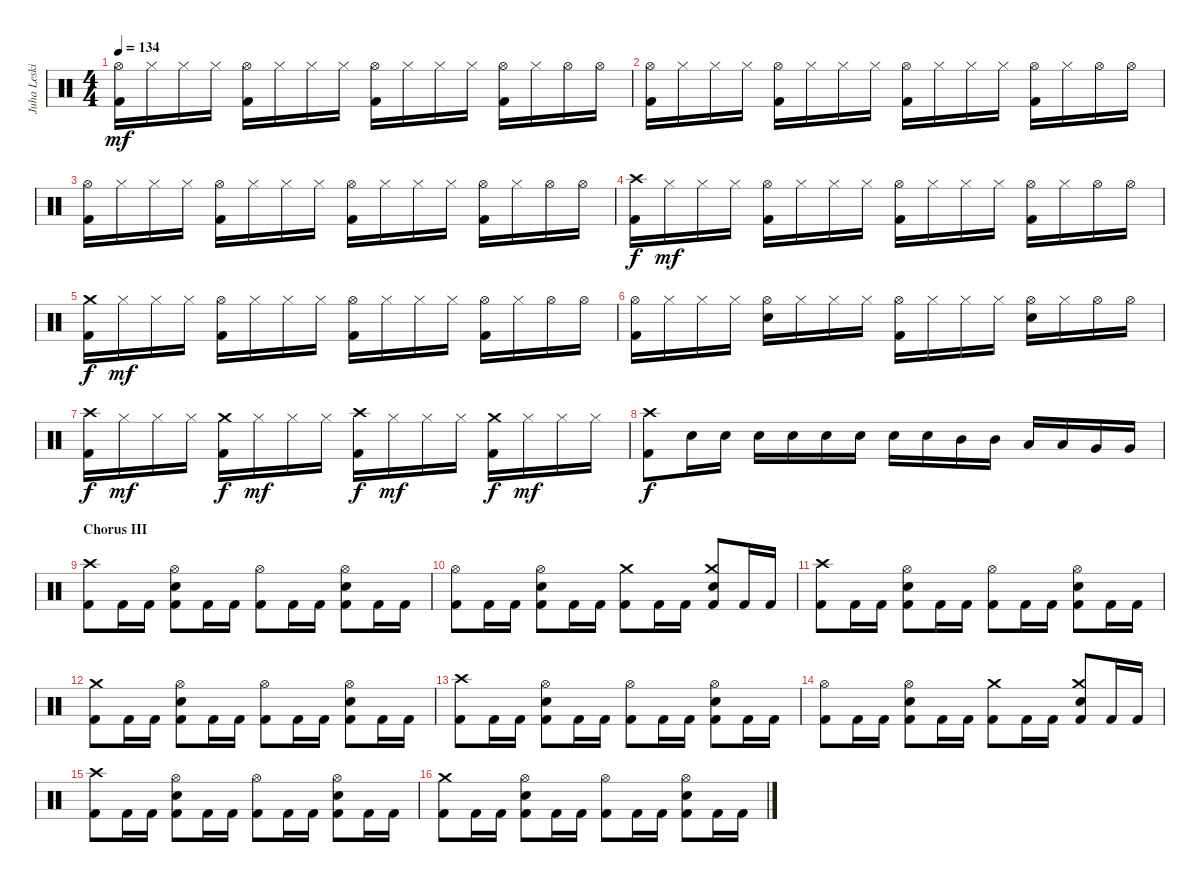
\track ("Juha Leskinen - Drums" "Juha Leski") {instrument percussion}
\staff {score}
\articulation defaults
\ts (4 4)
\tempo 134
\clef neutral
\ks c
("Hi-Hat (open)" "Kick (hit) 2").16{dy mf} "Hi-Hat (closed)".16 "Hi-Hat (closed)".16 "Hi-Hat (closed)".16 ("Hi-Hat (open)" "Kick (hit) 2").16 "Hi-Hat (closed)".16 "Hi-Hat (closed)".16 "Hi-Hat (closed)".16 ("Hi-Hat (open)" "Kick (hit) 2").16 "Hi-Hat (closed)".16 "Hi-Hat (closed)".16 "Hi-Hat (closed)".16 ("Hi-Hat (open)" "Kick (hit) 2").16 "Hi-Hat (closed)".16 "Hi-Hat (open)".16 "Hi-Hat (open)".16 |
("Hi-Hat (open)" "Kick (hit) 2").16 "Hi-Hat (closed)".16 "Hi-Hat (closed)".16 "Hi-Hat (closed)".16 ("Hi-Hat (open)" "Kick (hit) 2").16 "Hi-Hat (closed)".16 "Hi-Hat (closed)".16 "Hi-Hat (closed)".16 ("Hi-Hat (open)" "Kick (hit) 2").16 "Hi-Hat (closed)".16 "Hi-Hat (closed)".16 "Hi-Hat (closed)".16 ("Hi-Hat (open)" "Kick (hit) 2").16 "Hi-Hat (closed)".16 "Hi-Hat (open)".16 "Hi-Hat (open)".16 |
("Hi-Hat (open)" "Kick (hit) 2").16 "Hi-Hat (closed)".16 "Hi-Hat (closed)".16 "Hi-Hat (closed)".16 ("Hi-Hat (open)" "Kick (hit) 2").16 "Hi-Hat (closed)".16 "Hi-Hat (closed)".16 "Hi-Hat (closed)".16 ("Hi-Hat (open)" "Kick (hit) 2").16 "Hi-Hat (closed)".16 "Hi-Hat (closed)".16 "Hi-Hat (closed)".16 ("Hi-Hat (open)" "Kick (hit) 2").16 "Hi-Hat (closed)".16 "Hi-Hat (open)".16 "Hi-Hat (open)".16 |
("Crash high (hit)" "Kick (hit) 2").16{dy f} "Hi-Hat (closed)".16{dy mf} "Hi-Hat (closed)".16 "Hi-Hat (closed)".16 ("Hi-Hat (open)" "Kick (hit) 2").16 "Hi-Hat (closed)".16 "Hi-Hat (closed)".16 "Hi-Hat (closed)".16 ("Hi-Hat (open)" "Kick (hit) 2").16 "Hi-Hat (closed)".16 "Hi-Hat (closed)".16 "Hi-Hat (closed)".16 ("Hi-Hat (open)" "Kick (hit) 2").16 "Hi-Hat (closed)".16 "Hi-Hat (open)".16 "Hi-Hat (open)".16 |
("Crash medium (hit)" "Kick (hit) 2").16{dy f} "Hi-Hat (closed)".16{dy mf} "Hi-Hat (closed)".16 "Hi-Hat (closed)".16 ("Hi-Hat (open)" "Kick (hit) 2").16 "Hi-Hat (closed)".16 "Hi-Hat (closed)".16 "Hi-Hat (closed)".16 ("Hi-Hat (open)" "Kick (hit) 2").16 "Hi-Hat (closed)".16 "Hi-Hat (closed)".16 "Hi-Hat (closed)".16 ("Hi-Hat (open)" "Kick (hit) 2").16 "Hi-Hat (closed)".16 "Hi-Hat (open)".16 "Hi-Hat (open)".16 |
("Hi-Hat (open)" "Kick (hit) 2").16 "Hi-Hat (closed)".16 "Hi-Hat (closed)".16 "Hi-Hat (closed)".16 ("Hi-Hat (open)" "Electric Snare (hit)").16 "Hi-Hat (closed)".16 "Hi-Hat (closed)".16 "Hi-Hat (closed)".16 ("Hi-Hat (open)" "Kick (hit) 2").16 "Hi-Hat (closed)".16 "Hi-Hat (closed)".16 "Hi-Hat (closed)".16 ("Hi-Hat (open)" "Electric Snare (hit)").16 "Hi-Hat (closed)".16 "Hi-Hat (open)".16 "Hi-Hat (open)".16 |
("Crash high (hit)" "Kick (hit) 2").16{dy f} "Hi-Hat (closed)".16{dy mf} "Hi-Hat (closed)".16 "Hi-Hat (closed)".16 ("Crash medium (hit)" "Kick (hit) 2").16{dy f} "Hi-Hat (closed)".16{dy mf} "Hi-Hat (closed)".16 "Hi-Hat (closed)".16 ("Crash high (hit)" "Kick (hit) 2").16{dy f} "Hi-Hat (closed)".16{dy mf} "Hi-Hat (closed)".16 "Hi-Hat (closed)".16 ("Crash medium (hit)" "Kick (hit) 2").16{dy f} "Hi-Hat (closed)".16{dy mf} "Hi-Hat (closed)".16 "Hi-Hat (closed)".16 |
("Crash high (hit)" "Kick (hit) 2").8{dy f} "Electric Snare (hit)".16 "Electric Snare (hit)".16 "Electric Snare (hit)".16 "Electric Snare (hit)".16 "Electric Snare (hit)".16 "Electric Snare (hit)".16 "Electric Snare (hit)".16 "Electric Snare (hit)".16 "Mid Tom (hit)".16 "Mid Tom (hit)".16 "Low Tom (hit)".16 "Low Tom (hit)".16 "Very Low Tom (hit)".16 "Very Low Tom (hit)".16 |
\section ("" "Chorus III")
("Crash high (hit)" "Kick (hit) 2").8 "Kick (hit) 2".16 "Kick (hit) 2".16 ("Hi-Hat (open)" "Electric Snare (hit)" "Kick (hit) 2").8 "Kick (hit) 2".16 "Kick (hit) 2".16 ("Hi-Hat (open)" "Kick (hit) 2").8 "Kick (hit) 2".16 "Kick (hit) 2".16 ("Hi-Hat (open)" "Electric Snare (hit)" "Kick (hit) 2").8 "Kick (hit) 2".16 "Kick (hit) 2".16 |
("Hi-Hat (open)" "Kick (hit) 2").8 "Kick (hit) 2".16 "Kick (hit) 2".16 ("Hi-Hat (open)" "Electric Snare (hit)" "Kick (hit) 2").8 "Kick (hit) 2".16 "Kick (hit) 2".16 ("Crash medium (hit)" "Kick (hit) 2").8 "Kick (hit) 2".16 "Kick (hit) 2".16 ("Crash medium (hit)" "Electric Snare (hit)" "Kick (hit) 2").8 "Kick (hit) 2".16 "Kick (hit) 2".16 |
("Crash high (hit)" "Kick (hit) 2").8 "Kick (hit) 2".16 "Kick (hit) 2".16 ("Hi-Hat (open)" "Electric Snare (hit)" "Kick (hit) 2").8 "Kick (hit) 2".16 "Kick (hit) 2".16 ("Hi-Hat (open)" "Kick (hit) 2").8 "Kick (hit) 2".16 "Kick (hit) 2".16 ("Hi-Hat (open)" "Electric Snare (hit)" "Kick (hit) 2").8 "Kick (hit) 2".16 "Kick (hit) 2".16 |
("Crash medium (hit)" "Kick (hit) 2").8 "Kick (hit) 2".16 "Kick (hit) 2".16 ("Hi-Hat (open)" "Electric Snare (hit)" "Kick (hit) 2").8 "Kick (hit) 2".16 "Kick (hit) 2".16 ("Hi-Hat (open)" "Kick (hit) 2").8 "Kick (hit) 2".16 "Kick (hit) 2".16 ("Hi-Hat (open)" "Electric Snare (hit)" "Kick (hit) 2").8 "Kick (hit) 2".16 "Kick (hit) 2".16 |
("Crash high (hit)" "Kick (hit) 2").8 "Kick (hit) 2".16 "Kick (hit) 2".16 ("Hi-Hat (open)" "Electric Snare (hit)" "Kick (hit) 2").8 "Kick (hit) 2".16 "Kick (hit) 2".16 ("Hi-Hat (open)" "Kick (hit) 2").8 "Kick (hit) 2".16 "Kick (hit) 2".16 ("Hi-Hat (open)" "Electric Snare (hit)" "Kick (hit) 2").8 "Kick (hit) 2".16 "Kick (hit) 2".16 |
("Hi-Hat (open)" "Kick (hit) 2").8 "Kick (hit) 2".16 "Kick (hit) 2".16 ("Hi-Hat (open)" "Electric Snare (hit)" "Kick (hit) 2").8 "Kick (hit) 2".16 "Kick (hit) 2".16 ("Crash medium (hit)" "Kick (hit) 2").8 "Kick (hit) 2".16 "Kick (hit) 2".16 ("Crash medium (hit)" "Electric Snare (hit)" "Kick (hit) 2").8 "Kick (hit) 2".16 "Kick (hit) 2".16 |
("Crash high (hit)" "Kick (hit) 2").8 "Kick (hit) 2".16 "Kick (hit) 2".16 ("Hi-Hat (open)" "Electric Snare (hit)" "Kick (hit) 2").8 "Kick (hit) 2".16 "Kick (hit) 2".16 ("Hi-Hat (open)" "Kick (hit) 2").8 "Kick (hit) 2".16 "Kick (hit) 2".16 ("Hi-Hat (open)" "Electric Snare (hit)" "Kick (hit) 2").8 "Kick (hit) 2".16 "Kick (hit) 2".16 |
("Crash medium (hit)" "Kick (hit) 2").8 "Kick (hit) 2".16 "Kick (hit) 2".16 ("Hi-Hat (open)" "Electric Snare (hit)" "Kick (hit) 2").8 "Kick (hit) 2".16 "Kick (hit) 2".16 ("Hi-Hat (open)" "Kick (hit) 2").8 "Kick (hit) 2".16 "Kick (hit) 2".16 ("Hi-Hat (open)" "Electric Snare (hit)" "Kick (hit) 2").8 "Kick (hit) 2".16 "Kick (hit) 2".16
